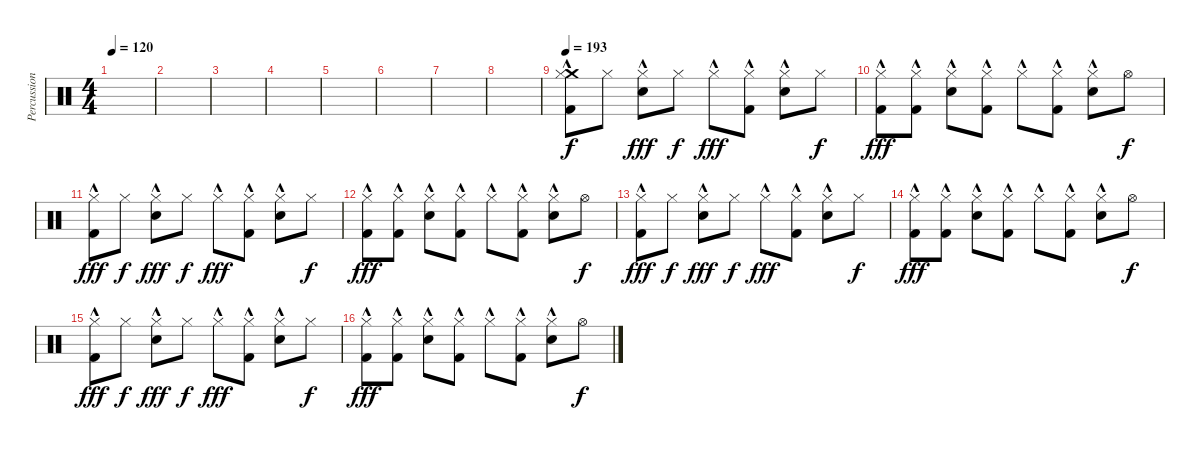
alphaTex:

\track ("Percussion" "Percussion") {instrument percussion}
\staff {score}
\articulation defaults
\ts (4 4)
\tempo 120
\clef neutral
\ks c
|
|
|
|
|
|
|
|
\tempo 193
("Crash medium (hit)"{hac} "Hi-Hat (closed)"{hac} "Kick (hit) 2"{hac}).8 "Hi-Hat (closed)".8{dy f} ("Hi-Hat (closed)"{hac} "Electric Snare (hit)"{hac}).8{dy fff} "Hi-Hat (closed)".8{dy f} "Hi-Hat (closed)"{hac}.8{dy fff} ("Hi-Hat (closed)" "Kick (hit) 2"{hac}).8 ("Hi-Hat (closed)"{hac} "Electric Snare (hit)"{hac}).8 "Hi-Hat (closed)".8{dy f} |
("Hi-Hat (closed)"{hac} "Kick (hit) 2"{hac}).8{dy fff} ("Hi-Hat (closed)" "Kick (hit) 2"{hac}).8 ("Hi-Hat (closed)"{hac} "Electric Snare (hit)"{hac}).8 ("Hi-Hat (closed)" "Kick (hit) 2"{hac}).8 "Hi-Hat (closed)"{hac}.8 ("Hi-Hat (closed)" "Kick (hit) 2"{hac}).8 ("Hi-Hat (closed)"{hac} "Electric Snare (hit)"{hac}).8 "Hi-Hat (open)".8{dy f} |
("Hi-Hat (closed)"{hac} "Kick (hit) 2"{hac}).8{dy fff} "Hi-Hat (closed)".8{dy f} ("Hi-Hat (closed)"{hac} "Electric Snare (hit)"{hac}).8{dy fff} "Hi-Hat (closed)".8{dy f} "Hi-Hat (closed)"{hac}.8{dy fff} ("Hi-Hat (closed)" "Kick (hit) 2"{hac}).8 ("Hi-Hat (closed)"{hac} "Electric Snare (hit)"{hac}).8 "Hi-Hat (closed)".8{dy f} |
("Hi-Hat (closed)"{hac} "Kick (hit) 2"{hac}).8{dy fff} ("Hi-Hat (closed)" "Kick (hit) 2"{hac}).8 ("Hi-Hat (closed)"{hac} "Electric Snare (hit)"{hac}).8 ("Hi-Hat (closed)" "Kick (hit) 2"{hac}).8 "Hi-Hat (closed)"{hac}.8 ("Hi-Hat (closed)" "Kick (hit) 2"{hac}).8 ("Hi-Hat (closed)"{hac} "Electric Snare (hit)"{hac}).8 "Hi-Hat (open)".8{dy f} |
("Hi-Hat (closed)"{hac} "Kick (hit) 2"{hac}).8{dy fff} "Hi-Hat (closed)".8{dy f} ("Hi-Hat (closed)"{hac} "Electric Snare (hit)"{hac}).8{dy fff} "Hi-Hat (closed)".8{dy f} "Hi-Hat (closed)"{hac}.8{dy fff} ("Hi-Hat (closed)" "Kick (hit) 2"{hac}).8 ("Hi-Hat (closed)"{hac} "Electric Snare (hit)"{hac}).8 "Hi-Hat (closed)".8{dy f} |
("Hi-Hat (closed)"{hac} "Kick (hit) 2"{hac}).8{dy fff} ("Hi-Hat (closed)" "Kick (hit) 2"{hac}).8 ("Hi-Hat (closed)"{hac} "Electric Snare (hit)"{hac}).8 ("Hi-Hat (closed)" "Kick (hit) 2"{hac}).8 "Hi-Hat (closed)"{hac}.8 ("Hi-Hat (closed)" "Kick (hit) 2"{hac}).8 ("Hi-Hat (closed)"{hac} "Electric Snare (hit)"{hac}).8 "Hi-Hat (open)".8{dy f} |
("Hi-Hat (closed)"{hac} "Kick (hit) 2"{hac}).8{dy fff} "Hi-Hat (closed)".8{dy f} ("Hi-Hat (closed)"{hac} "Electric Snare (hit)"{hac}).8{dy fff} "Hi-Hat (closed)".8{dy f} "Hi-Hat (closed)"{hac}.8{dy fff} ("Hi-Hat (closed)" "Kick (hit) 2"{hac}).8 ("Hi-Hat (closed)"{hac} "Electric Snare (hit)"{hac}).8 "Hi-Hat (closed)".8{dy f} |
("Hi-Hat (closed)"{hac} "Kick (hit) 2"{hac}).8{dy fff} ("Hi-Hat (closed)" "Kick (hit) 2"{hac}).8 ("Hi-Hat (closed)"{hac} "Electric Snare (hit)"{hac}).8 ("Hi-Hat (closed)" "Kick (hit) 2"{hac}).8 "Hi-Hat (closed)"{hac}.8 ("Hi-Hat (closed)" "Kick (hit) 2"{hac}).8 ("Hi-Hat (closed)"{hac} "Electric Snare (hit)"{hac}).8 "Hi-Hat (open)".8{dy f}
